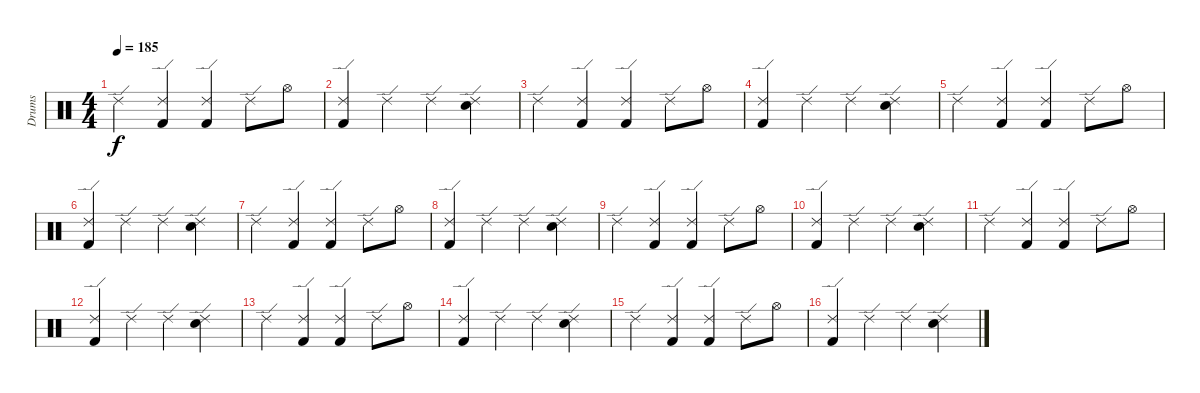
\track ("Drums" "Drums") {instrument percussion}
\staff {score}
\articulation defaults
\ts (4 4)
\tempo 185
\clef neutral
\ks c "Ride (edge) 2".4{dy f}
("Ride (edge) 2" "Kick (hit) 2").4 ("Ride (edge) 2" "Kick (hit) 2").4 "Ride (edge) 2".8 "Hi-Hat (open)".8 |
("Ride (edge) 2" "Kick (hit) 2").4 "Ride (edge) 2".4 "Ride (edge) 2".4 ("Ride (edge) 2" "Snare (hit) 2").4 |
"Ride (edge) 2".4 ("Ride (edge) 2" "Kick (hit) 2").4 ("Ride (edge) 2" "Kick (hit) 2").4 "Ride (edge) 2".8 "Hi-Hat (open)".8 |
("Ride (edge) 2" "Kick (hit) 2").4 "Ride (edge) 2".4 "Ride (edge) 2".4 ("Ride (edge) 2" "Snare (hit) 2").4 |
"Ride (edge) 2".4 ("Ride (edge) 2" "Kick (hit) 2").4 ("Ride (edge) 2" "Kick (hit) 2").4 "Ride (edge) 2".8 "Hi-Hat (open)".8 |
("Ride (edge) 2" "Kick (hit) 2").4 "Ride (edge) 2".4 "Ride (edge) 2".4 ("Ride (edge) 2" "Snare (hit) 2").4 |
"Ride (edge) 2".4 ("Ride (edge) 2" "Kick (hit) 2").4 ("Ride (edge) 2" "Kick (hit) 2").4 "Ride (edge) 2".8 "Hi-Hat (open)".8 |
("Ride (edge) 2" "Kick (hit) 2").4 "Ride (edge) 2".4 "Ride (edge) 2".4 ("Ride (edge) 2" "Snare (hit) 2").4 |
"Ride (edge) 2".4 ("Ride (edge) 2" "Kick (hit) 2").4 ("Ride (edge) 2" "Kick (hit) 2").4 "Ride (edge) 2".8 "Hi-Hat (open)".8 |
("Ride (edge) 2" "Kick (hit) 2").4 "Ride (edge) 2".4 "Ride (edge) 2".4 ("Ride (edge) 2" "Snare (hit) 2").4 |
"Ride (edge) 2".4 ("Ride (edge) 2" "Kick (hit) 2").4 ("Ride (edge) 2" "Kick (hit) 2").4 "Ride (edge) 2".8 "Hi-Hat (open)".8 |
("Ride (edge) 2" "Kick (hit) 2").4 "Ride (edge) 2".4 "Ride (edge) 2".4 ("Ride (edge) 2" "Snare (hit) 2").4 |
"Ride (edge) 2".4 ("Ride (edge) 2" "Kick (hit) 2").4 ("Ride (edge) 2" "Kick (hit) 2").4 "Ride (edge) 2".8 "Hi-Hat (open)".8 |
("Ride (edge) 2" "Kick (hit) 2").4 "Ride (edge) 2".4 "Ride (edge) 2".4 ("Ride (edge) 2" "Snare (hit) 2").4 |
"Ride (edge) 2".4 ("Ride (edge) 2" "Kick (hit) 2").4 ("Ride (edge) 2" "Kick (hit) 2").4 "Ride (edge) 2".8 "Hi-Hat (open)".8 |
("Ride (edge) 2" "Kick (hit) 2").4 "Ride (edge) 2".4 "Ride (edge) 2".4 ("Ride (edge) 2" "Snare (hit) 2").4
